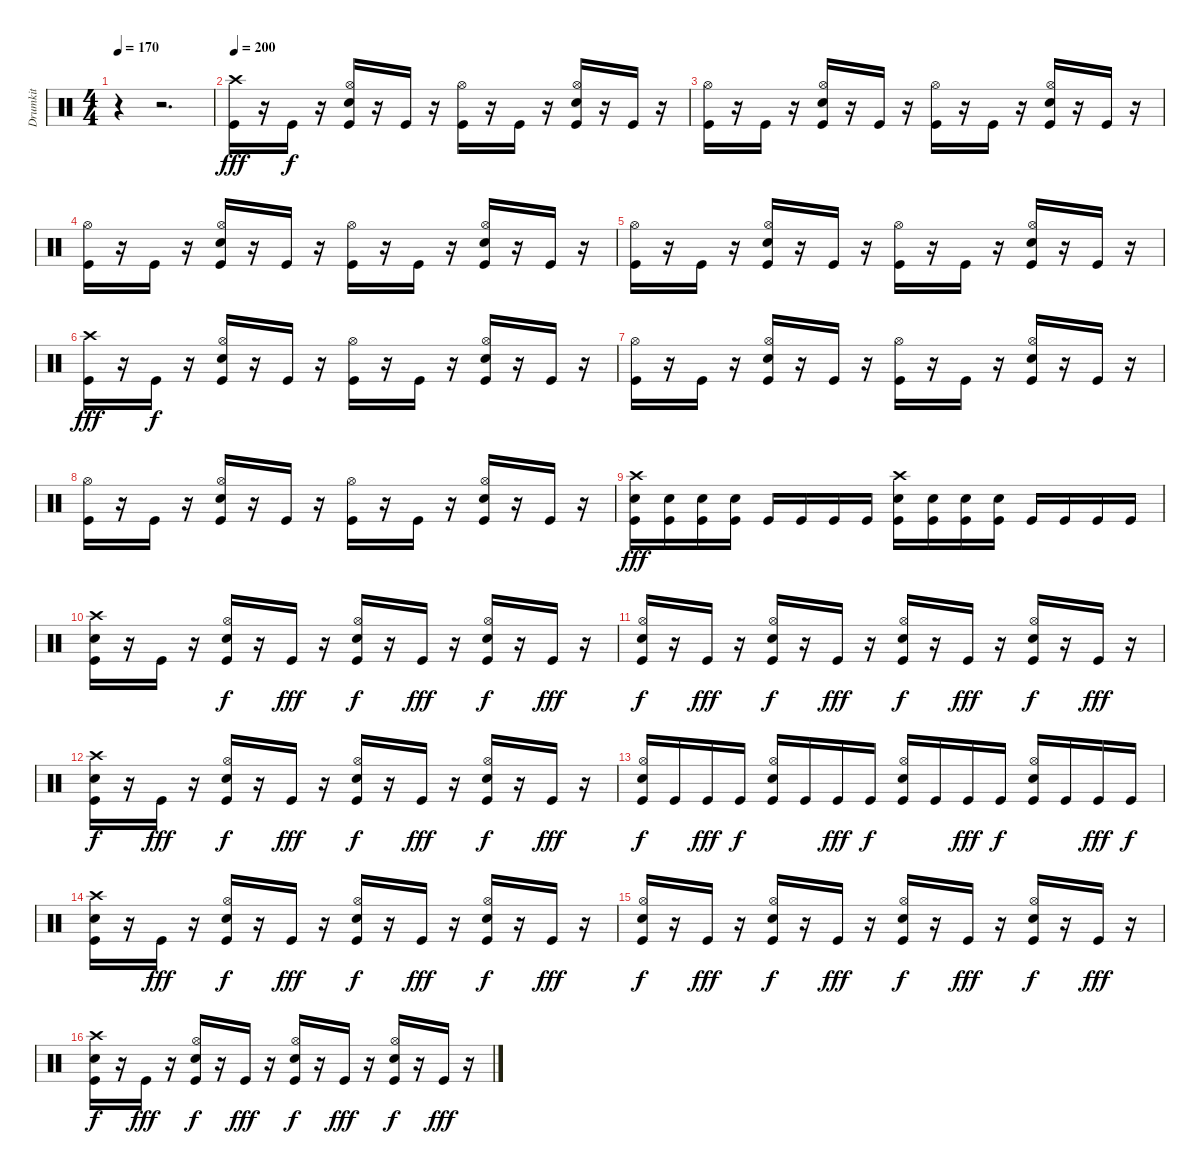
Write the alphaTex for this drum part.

\track ("Drumkit" "Drumkit") {instrument percussion}
\staff {score}
\articulation defaults
\ts (4 4)
\tempo 170
\clef neutral
\ks c
r.4{dy f} r.2{d} |
\tempo 200
("Crash high (hit)" "Kick (hit)").16{dy fff} r.16 "Kick (hit)".16{dy f} r.16 ("Hi-Hat (open)" "Snare (hit) 2" "Kick (hit)").16 r.16 "Kick (hit)".16 r.16 ("Hi-Hat (open)" "Kick (hit)").16 r.16 "Kick (hit)".16 r.16 ("Hi-Hat (open)" "Snare (hit) 2" "Kick (hit)").16 r.16 "Kick (hit)".16 r.16 |
("Hi-Hat (open)" "Kick (hit)").16 r.16 "Kick (hit)".16 r.16 ("Hi-Hat (open)" "Snare (hit) 2" "Kick (hit)").16 r.16 "Kick (hit)".16 r.16 ("Hi-Hat (open)" "Kick (hit)").16 r.16 "Kick (hit)".16 r.16 ("Hi-Hat (open)" "Snare (hit) 2" "Kick (hit)").16 r.16 "Kick (hit)".16 r.16 |
("Hi-Hat (open)" "Kick (hit)").16 r.16 "Kick (hit)".16 r.16 ("Hi-Hat (open)" "Snare (hit) 2" "Kick (hit)").16 r.16 "Kick (hit)".16 r.16 ("Hi-Hat (open)" "Kick (hit)").16 r.16 "Kick (hit)".16 r.16 ("Hi-Hat (open)" "Snare (hit) 2" "Kick (hit)").16 r.16 "Kick (hit)".16 r.16 |
("Hi-Hat (open)" "Kick (hit)").16 r.16 "Kick (hit)".16 r.16 ("Hi-Hat (open)" "Snare (hit) 2" "Kick (hit)").16 r.16 "Kick (hit)".16 r.16 ("Hi-Hat (open)" "Kick (hit)").16 r.16 "Kick (hit)".16 r.16 ("Hi-Hat (open)" "Snare (hit) 2" "Kick (hit)").16 r.16 "Kick (hit)".16 r.16 |
("Crash high (hit)" "Kick (hit)").16{dy fff} r.16 "Kick (hit)".16{dy f} r.16 ("Hi-Hat (open)" "Snare (hit) 2" "Kick (hit)").16 r.16 "Kick (hit)".16 r.16 ("Hi-Hat (open)" "Kick (hit)").16 r.16 "Kick (hit)".16 r.16 ("Hi-Hat (open)" "Snare (hit) 2" "Kick (hit)").16 r.16 "Kick (hit)".16 r.16 |
("Hi-Hat (open)" "Kick (hit)").16 r.16 "Kick (hit)".16 r.16 ("Hi-Hat (open)" "Snare (hit) 2" "Kick (hit)").16 r.16 "Kick (hit)".16 r.16 ("Hi-Hat (open)" "Kick (hit)").16 r.16 "Kick (hit)".16 r.16 ("Hi-Hat (open)" "Snare (hit) 2" "Kick (hit)").16 r.16 "Kick (hit)".16 r.16 |
("Hi-Hat (open)" "Kick (hit)").16 r.16 "Kick (hit)".16 r.16 ("Hi-Hat (open)" "Snare (hit) 2" "Kick (hit)").16 r.16 "Kick (hit)".16 r.16 ("Hi-Hat (open)" "Kick (hit)").16 r.16 "Kick (hit)".16 r.16 ("Hi-Hat (open)" "Snare (hit) 2" "Kick (hit)").16 r.16 "Kick (hit)".16 r.16 |
("Crash high (hit)" "Snare (hit) 2" "Kick (hit)").16{dy fff} ("Snare (hit) 2" "Kick (hit)").16 ("Snare (hit) 2" "Kick (hit)").16 ("Snare (hit) 2" "Kick (hit)").16 "Kick (hit)".16 "Kick (hit)".16 "Kick (hit)".16 "Kick (hit)".16 ("Crash high (hit)" "Snare (hit) 2" "Kick (hit)").16 ("Snare (hit) 2" "Kick (hit)").16 ("Snare (hit) 2" "Kick (hit)").16 ("Snare (hit) 2" "Kick (hit)").16 "Kick (hit)".16 "Kick (hit)".16 "Kick (hit)".16 "Kick (hit)".16 |
("Crash high (hit)" "Snare (hit) 2" "Kick (hit)").16 r.16 "Kick (hit)".16 r.16 ("Hi-Hat (open)" "Snare (hit) 2" "Kick (hit)").16{dy f} r.16 "Kick (hit)".16{dy fff} r.16 ("Hi-Hat (open)" "Snare (hit) 2" "Kick (hit)").16{dy f} r.16 "Kick (hit)".16{dy fff} r.16 ("Hi-Hat (open)" "Snare (hit) 2" "Kick (hit)").16{dy f} r.16 "Kick (hit)".16{dy fff} r.16 |
("Hi-Hat (open)" "Snare (hit) 2" "Kick (hit)").16{dy f} r.16 "Kick (hit)".16{dy fff} r.16 ("Hi-Hat (open)" "Snare (hit) 2" "Kick (hit)").16{dy f} r.16 "Kick (hit)".16{dy fff} r.16 ("Hi-Hat (open)" "Snare (hit) 2" "Kick (hit)").16{dy f} r.16 "Kick (hit)".16{dy fff} r.16 ("Hi-Hat (open)" "Snare (hit) 2" "Kick (hit)").16{dy f} r.16 "Kick (hit)".16{dy fff} r.16 |
("Crash high (hit)" "Snare (hit) 2" "Kick (hit)").16{dy f} r.16 "Kick (hit)".16{dy fff} r.16 ("Hi-Hat (open)" "Snare (hit) 2" "Kick (hit)").16{dy f} r.16 "Kick (hit)".16{dy fff} r.16 ("Hi-Hat (open)" "Snare (hit) 2" "Kick (hit)").16{dy f} r.16 "Kick (hit)".16{dy fff} r.16 ("Hi-Hat (open)" "Snare (hit) 2" "Kick (hit)").16{dy f} r.16 "Kick (hit)".16{dy fff} r.16 |
("Hi-Hat (open)" "Snare (hit) 2" "Kick (hit)").16{dy f} "Kick (hit)".16 "Kick (hit)".16{dy fff} "Kick (hit)".16{dy f} ("Hi-Hat (open)" "Snare (hit) 2" "Kick (hit)").16 "Kick (hit)".16 "Kick (hit)".16{dy fff} "Kick (hit)".16{dy f} ("Hi-Hat (open)" "Snare (hit) 2" "Kick (hit)").16 "Kick (hit)".16 "Kick (hit)".16{dy fff} "Kick (hit)".16{dy f} ("Hi-Hat (open)" "Snare (hit) 2" "Kick (hit)").16 "Kick (hit)".16 "Kick (hit)".16{dy fff} "Kick (hit)".16{dy f} |
("Crash high (hit)" "Snare (hit) 2" "Kick (hit)").16 r.16 "Kick (hit)".16{dy fff} r.16 ("Hi-Hat (open)" "Snare (hit) 2" "Kick (hit)").16{dy f} r.16 "Kick (hit)".16{dy fff} r.16 ("Hi-Hat (open)" "Snare (hit) 2" "Kick (hit)").16{dy f} r.16 "Kick (hit)".16{dy fff} r.16 ("Hi-Hat (open)" "Snare (hit) 2" "Kick (hit)").16{dy f} r.16 "Kick (hit)".16{dy fff} r.16 |
("Hi-Hat (open)" "Snare (hit) 2" "Kick (hit)").16{dy f} r.16 "Kick (hit)".16{dy fff} r.16 ("Hi-Hat (open)" "Snare (hit) 2" "Kick (hit)").16{dy f} r.16 "Kick (hit)".16{dy fff} r.16 ("Hi-Hat (open)" "Snare (hit) 2" "Kick (hit)").16{dy f} r.16 "Kick (hit)".16{dy fff} r.16 ("Hi-Hat (open)" "Snare (hit) 2" "Kick (hit)").16{dy f} r.16 "Kick (hit)".16{dy fff} r.16 |
("Crash high (hit)" "Snare (hit) 2" "Kick (hit)").16{dy f} r.16 "Kick (hit)".16{dy fff} r.16 ("Hi-Hat (open)" "Snare (hit) 2" "Kick (hit)").16{dy f} r.16 "Kick (hit)".16{dy fff} r.16 ("Hi-Hat (open)" "Snare (hit) 2" "Kick (hit)").16{dy f} r.16 "Kick (hit)".16{dy fff} r.16 ("Hi-Hat (open)" "Snare (hit) 2" "Kick (hit)").16{dy f} r.16 "Kick (hit)".16{dy fff} r.16
